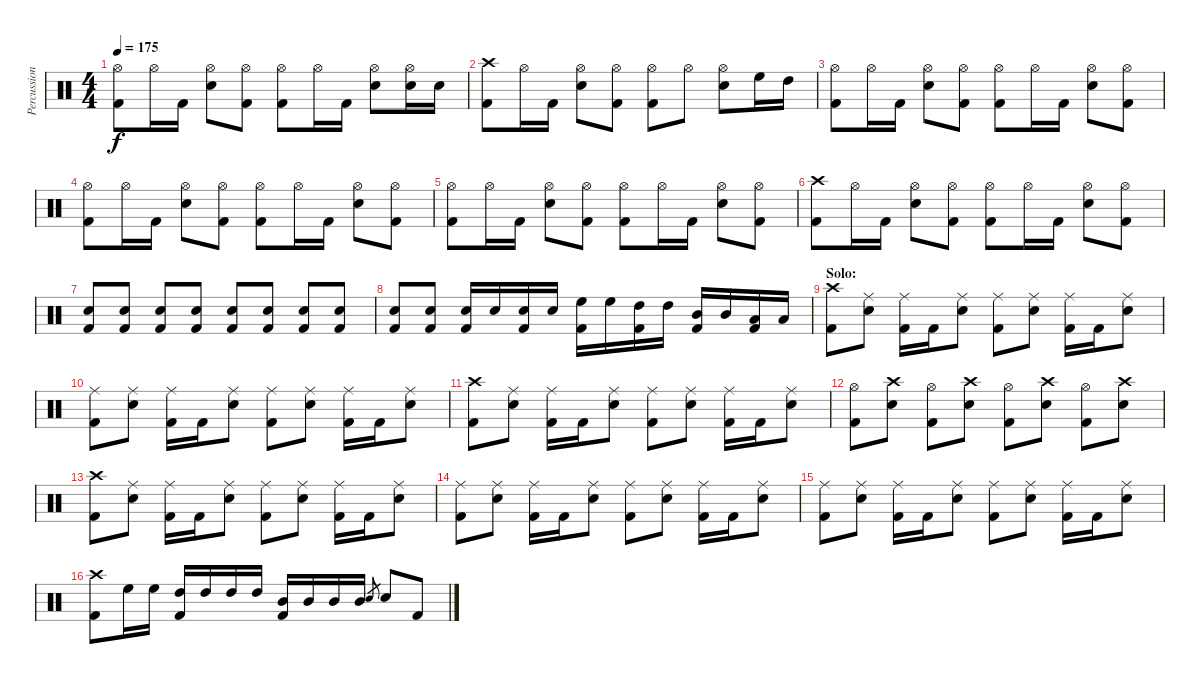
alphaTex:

\track ("Percussion" "Percussion") {instrument percussion}
\staff {score}
\articulation defaults
\ts (4 4)
\tempo 175
\clef neutral
\ks c
("Hi-Hat (open)" "Kick (hit) 2").8{dy f} "Hi-Hat (open)".16 "Kick (hit) 2".16 ("Hi-Hat (open)" "Electric Snare (hit)").8 ("Hi-Hat (open)" "Kick (hit) 2").8 ("Hi-Hat (open)" "Kick (hit) 2").8 "Hi-Hat (open)".16 "Kick (hit) 2".16 ("Hi-Hat (open)" "Electric Snare (hit)").8 ("Hi-Hat (open)" "Electric Snare (hit)").16 "Electric Snare (hit)".16 |
("Crash high (hit)" "Kick (hit) 2").8 "Hi-Hat (open)".16 "Kick (hit) 2".16 ("Hi-Hat (open)" "Electric Snare (hit)").8 ("Hi-Hat (open)" "Kick (hit) 2").8 ("Hi-Hat (open)" "Kick (hit) 2").8 "Hi-Hat (open)".8 ("Hi-Hat (open)" "Electric Snare (hit)").8 "High Floor Tom (hit)".16 "High Tom (hit)".16 |
("Hi-Hat (open)" "Kick (hit) 2").8 "Hi-Hat (open)".16 "Kick (hit) 2".16 ("Hi-Hat (open)" "Electric Snare (hit)").8 ("Hi-Hat (open)" "Kick (hit) 2").8 ("Hi-Hat (open)" "Kick (hit) 2").8 "Hi-Hat (open)".16 "Kick (hit) 2".16 ("Hi-Hat (open)" "Electric Snare (hit)").8 ("Hi-Hat (open)" "Kick (hit) 2").8 |
("Hi-Hat (open)" "Kick (hit) 2").8 "Hi-Hat (open)".16 "Kick (hit) 2".16 ("Hi-Hat (open)" "Electric Snare (hit)").8 ("Hi-Hat (open)" "Kick (hit) 2").8 ("Hi-Hat (open)" "Kick (hit) 2").8 "Hi-Hat (open)".16 "Kick (hit) 2".16 ("Hi-Hat (open)" "Electric Snare (hit)").8 ("Hi-Hat (open)" "Kick (hit) 2").8 |
("Hi-Hat (open)" "Kick (hit) 2").8 "Hi-Hat (open)".16 "Kick (hit) 2".16 ("Hi-Hat (open)" "Electric Snare (hit)").8 ("Hi-Hat (open)" "Kick (hit) 2").8 ("Hi-Hat (open)" "Kick (hit) 2").8 "Hi-Hat (open)".16 "Kick (hit) 2".16 ("Hi-Hat (open)" "Electric Snare (hit)").8 ("Hi-Hat (open)" "Kick (hit) 2").8 |
("Crash high (hit)" "Kick (hit) 2").8 "Hi-Hat (open)".16 "Kick (hit) 2".16 ("Hi-Hat (open)" "Electric Snare (hit)").8 ("Hi-Hat (open)" "Kick (hit) 2").8 ("Hi-Hat (open)" "Kick (hit) 2").8 "Hi-Hat (open)".16 "Kick (hit) 2".16 ("Hi-Hat (open)" "Electric Snare (hit)").8 ("Hi-Hat (open)" "Kick (hit) 2").8 |
("Electric Snare (hit)" "Kick (hit) 2").8 ("Electric Snare (hit)" "Kick (hit) 2").8 ("Electric Snare (hit)" "Kick (hit) 2").8 ("Electric Snare (hit)" "Kick (hit) 2").8 ("Electric Snare (hit)" "Kick (hit) 2").8 ("Electric Snare (hit)" "Kick (hit) 2").8 ("Electric Snare (hit)" "Kick (hit) 2").8 ("Electric Snare (hit)" "Kick (hit) 2").8 |
("Electric Snare (hit)" "Kick (hit) 2").8 ("Electric Snare (hit)" "Kick (hit) 2").8 ("Electric Snare (hit)" "Kick (hit) 2").16 "Electric Snare (hit)".16 ("Electric Snare (hit)" "Kick (hit) 2").16 "Electric Snare (hit)".16 ("High Floor Tom (hit)" "Kick (hit) 2").16 "High Floor Tom (hit)".16 ("High Tom (hit)" "Kick (hit) 2").16 "High Tom (hit)".16 ("Mid Tom (hit)" "Kick (hit) 2").16 "Mid Tom (hit)".16 ("Low Tom (hit)" "Kick (hit) 2").16 "Low Tom (hit)".16 |
\section ("" "Solo:")
("Crash high (hit)" "Kick (hit) 2").8 ("Ride (middle)" "Electric Snare (hit)").8 ("Ride (middle)" "Kick (hit) 2").16 "Kick (hit) 2".16 ("Ride (middle)" "Electric Snare (hit)").8 ("Ride (middle)" "Kick (hit) 2").8 ("Ride (middle)" "Electric Snare (hit)").8 ("Ride (middle)" "Kick (hit) 2").16 "Kick (hit) 2".16 ("Ride (middle)" "Electric Snare (hit)").8 |
("Ride (middle)" "Kick (hit) 2").8 ("Ride (middle)" "Electric Snare (hit)").8 ("Ride (middle)" "Kick (hit) 2").16 "Kick (hit) 2".16 ("Ride (middle)" "Electric Snare (hit)").8 ("Ride (middle)" "Kick (hit) 2").8 ("Ride (middle)" "Electric Snare (hit)").8 ("Ride (middle)" "Kick (hit) 2").16 "Kick (hit) 2".16 ("Ride (middle)" "Electric Snare (hit)").8 |
("Crash high (hit)" "Kick (hit) 2").8 ("Ride (middle)" "Electric Snare (hit)").8 ("Ride (middle)" "Kick (hit) 2").16 "Kick (hit) 2".16 ("Ride (middle)" "Electric Snare (hit)").8 ("Ride (middle)" "Kick (hit) 2").8 ("Ride (middle)" "Electric Snare (hit)").8 ("Ride (middle)" "Kick (hit) 2").16 "Kick (hit) 2".16 ("Ride (middle)" "Electric Snare (hit)").8 |
("Hi-Hat (open)" "Kick (hit) 2").8 ("Crash high (hit)" "Electric Snare (hit)").8 ("Hi-Hat (open)" "Kick (hit) 2").8 ("Crash high (hit)" "Electric Snare (hit)").8 ("Hi-Hat (open)" "Kick (hit) 2").8 ("Crash high (hit)" "Electric Snare (hit)").8 ("Hi-Hat (open)" "Kick (hit) 2").8 ("Crash high (hit)" "Electric Snare (hit)").8 |
("Crash high (hit)" "Kick (hit) 2").8 ("Ride (middle)" "Electric Snare (hit)").8 ("Ride (middle)" "Kick (hit) 2").16 "Kick (hit) 2".16 ("Ride (middle)" "Electric Snare (hit)").8 ("Ride (middle)" "Kick (hit) 2").8 ("Ride (middle)" "Electric Snare (hit)").8 ("Ride (middle)" "Kick (hit) 2").16 "Kick (hit) 2".16 ("Ride (middle)" "Electric Snare (hit)").8 |
("Ride (middle)" "Kick (hit) 2").8 ("Ride (middle)" "Electric Snare (hit)").8 ("Ride (middle)" "Kick (hit) 2").16 "Kick (hit) 2".16 ("Ride (middle)" "Electric Snare (hit)").8 ("Ride (middle)" "Kick (hit) 2").8 ("Ride (middle)" "Electric Snare (hit)").8 ("Ride (middle)" "Kick (hit) 2").16 "Kick (hit) 2".16 ("Ride (middle)" "Electric Snare (hit)").8 |
("Ride (middle)" "Kick (hit) 2").8 ("Ride (middle)" "Electric Snare (hit)").8 ("Ride (middle)" "Kick (hit) 2").16 "Kick (hit) 2".16 ("Ride (middle)" "Electric Snare (hit)").8 ("Ride (middle)" "Kick (hit) 2").8 ("Ride (middle)" "Electric Snare (hit)").8 ("Ride (middle)" "Kick (hit) 2").16 "Kick (hit) 2".16 ("Ride (middle)" "Electric Snare (hit)").8 |
("Crash high (hit)" "Kick (hit) 2").8 "High Floor Tom (hit)".16 "High Floor Tom (hit)".16 ("High Tom (hit)" "Kick (hit) 2").16 "High Tom (hit)".16 "High Tom (hit)".16 "High Tom (hit)".16 ("Mid Tom (hit)" "Kick (hit) 2").16 "Mid Tom (hit)".16 "Mid Tom (hit)".16 "Mid Tom (hit)".16 "Electric Snare (hit)".8{gr} "Electric Snare (hit)".8 "Kick (hit) 2".8
